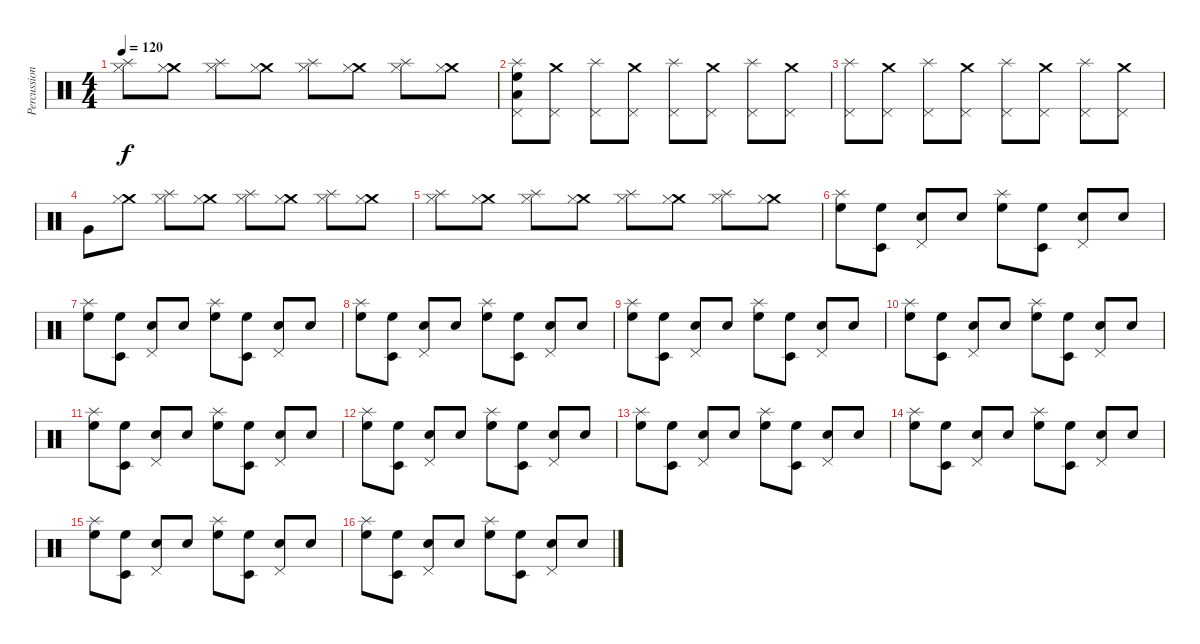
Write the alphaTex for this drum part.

\track ("Percussion" "Percussion") {instrument percussion}
\staff {score}
\articulation defaults
\ts (4 4)
\tempo 120
\clef neutral
\ks c
("Splash (hit)" "Hi-Hat (closed)").8{dy f} ("Crash medium (hit)" "Hi-Hat (closed)").8 ("Splash (hit)" "Hi-Hat (closed)").8 ("Crash medium (hit)" "Hi-Hat (closed)").8 ("Splash (hit)" "Hi-Hat (closed)").8 ("Crash medium (hit)" "Hi-Hat (closed)").8 ("Splash (hit)" "Hi-Hat (closed)").8 ("Crash medium (hit)" "Hi-Hat (closed)").8 |
("Splash (hit)" "Pedal Hi-Hat (hit)" "High Floor Tom (hit)" "Low Tom (hit)").8 ("Crash medium (hit)" "Pedal Hi-Hat (hit)").8 ("Splash (hit)" "Pedal Hi-Hat (hit)").8 ("Crash medium (hit)" "Pedal Hi-Hat (hit)").8 ("Splash (hit)" "Pedal Hi-Hat (hit)").8 ("Crash medium (hit)" "Pedal Hi-Hat (hit)").8 ("Splash (hit)" "Pedal Hi-Hat (hit)").8 ("Crash medium (hit)" "Pedal Hi-Hat (hit)").8 |
("Splash (hit)" "Pedal Hi-Hat (hit)").8 ("Crash medium (hit)" "Pedal Hi-Hat (hit)").8 ("Splash (hit)" "Pedal Hi-Hat (hit)").8 ("Crash medium (hit)" "Pedal Hi-Hat (hit)").8 ("Splash (hit)" "Pedal Hi-Hat (hit)").8 ("Crash medium (hit)" "Pedal Hi-Hat (hit)").8 ("Splash (hit)" "Pedal Hi-Hat (hit)").8 ("Crash medium (hit)" "Pedal Hi-Hat (hit)").8 |
"Very Low Tom (hit)".8 ("Crash medium (hit)" "Hi-Hat (closed)").8 ("Splash (hit)" "Hi-Hat (closed)").8 ("Crash medium (hit)" "Hi-Hat (closed)").8 ("Splash (hit)" "Hi-Hat (closed)").8 ("Crash medium (hit)" "Hi-Hat (closed)").8 ("Splash (hit)" "Hi-Hat (closed)").8 ("Crash medium (hit)" "Hi-Hat (closed)").8 |
("Splash (hit)" "Hi-Hat (closed)").8 ("Crash medium (hit)" "Hi-Hat (closed)").8 ("Splash (hit)" "Hi-Hat (closed)").8 ("Crash medium (hit)" "Hi-Hat (closed)").8 ("Splash (hit)" "Hi-Hat (closed)").8 ("Crash medium (hit)" "Hi-Hat (closed)").8 ("Splash (hit)" "Hi-Hat (closed)").8 ("Crash medium (hit)" "Hi-Hat (closed)").8 |
("Splash (hit)" "High Floor Tom (hit)").8 ("Timbale low (hit)" "High Floor Tom (hit)").8 ("Pedal Hi-Hat (hit)" "Electric Snare (hit)").8 "Electric Snare (hit)".8 ("Splash (hit)" "High Floor Tom (hit)").8 ("Timbale low (hit)" "High Floor Tom (hit)").8 ("Pedal Hi-Hat (hit)" "Electric Snare (hit)").8 "Electric Snare (hit)".8 |
("Splash (hit)" "High Floor Tom (hit)").8 ("Timbale low (hit)" "High Floor Tom (hit)").8 ("Pedal Hi-Hat (hit)" "Electric Snare (hit)").8 "Electric Snare (hit)".8 ("Splash (hit)" "High Floor Tom (hit)").8 ("Timbale low (hit)" "High Floor Tom (hit)").8 ("Pedal Hi-Hat (hit)" "Electric Snare (hit)").8 "Electric Snare (hit)".8 |
("Splash (hit)" "High Floor Tom (hit)").8 ("Timbale low (hit)" "High Floor Tom (hit)").8 ("Pedal Hi-Hat (hit)" "Electric Snare (hit)").8 "Electric Snare (hit)".8 ("Splash (hit)" "High Floor Tom (hit)").8 ("Timbale low (hit)" "High Floor Tom (hit)").8 ("Pedal Hi-Hat (hit)" "Electric Snare (hit)").8 "Electric Snare (hit)".8 |
("Splash (hit)" "High Floor Tom (hit)").8 ("Timbale low (hit)" "High Floor Tom (hit)").8 ("Pedal Hi-Hat (hit)" "Electric Snare (hit)").8 "Electric Snare (hit)".8 ("Splash (hit)" "High Floor Tom (hit)").8 ("Timbale low (hit)" "High Floor Tom (hit)").8 ("Pedal Hi-Hat (hit)" "Electric Snare (hit)").8 "Electric Snare (hit)".8 |
("Splash (hit)" "High Floor Tom (hit)").8 ("Timbale low (hit)" "High Floor Tom (hit)").8 ("Pedal Hi-Hat (hit)" "Electric Snare (hit)").8 "Electric Snare (hit)".8 ("Splash (hit)" "High Floor Tom (hit)").8 ("Timbale low (hit)" "High Floor Tom (hit)").8 ("Pedal Hi-Hat (hit)" "Electric Snare (hit)").8 "Electric Snare (hit)".8 |
("Splash (hit)" "High Floor Tom (hit)").8 ("Timbale low (hit)" "High Floor Tom (hit)").8 ("Pedal Hi-Hat (hit)" "Electric Snare (hit)").8 "Electric Snare (hit)".8 ("Splash (hit)" "High Floor Tom (hit)").8 ("Timbale low (hit)" "High Floor Tom (hit)").8 ("Pedal Hi-Hat (hit)" "Electric Snare (hit)").8 "Electric Snare (hit)".8 |
("Splash (hit)" "High Floor Tom (hit)").8 ("Timbale low (hit)" "High Floor Tom (hit)").8 ("Pedal Hi-Hat (hit)" "Electric Snare (hit)").8 "Electric Snare (hit)".8 ("Splash (hit)" "High Floor Tom (hit)").8 ("Timbale low (hit)" "High Floor Tom (hit)").8 ("Pedal Hi-Hat (hit)" "Electric Snare (hit)").8 "Electric Snare (hit)".8 |
("Splash (hit)" "High Floor Tom (hit)").8 ("Timbale low (hit)" "High Floor Tom (hit)").8 ("Pedal Hi-Hat (hit)" "Electric Snare (hit)").8 "Electric Snare (hit)".8 ("Splash (hit)" "High Floor Tom (hit)").8 ("Timbale low (hit)" "High Floor Tom (hit)").8 ("Pedal Hi-Hat (hit)" "Electric Snare (hit)").8 "Electric Snare (hit)".8 |
("Splash (hit)" "High Floor Tom (hit)").8 ("Timbale low (hit)" "High Floor Tom (hit)").8 ("Pedal Hi-Hat (hit)" "Electric Snare (hit)").8 "Electric Snare (hit)".8 ("Splash (hit)" "High Floor Tom (hit)").8 ("Timbale low (hit)" "High Floor Tom (hit)").8 ("Pedal Hi-Hat (hit)" "Electric Snare (hit)").8 "Electric Snare (hit)".8 |
("Splash (hit)" "High Floor Tom (hit)").8 ("Timbale low (hit)" "High Floor Tom (hit)").8 ("Pedal Hi-Hat (hit)" "Electric Snare (hit)").8 "Electric Snare (hit)".8 ("Splash (hit)" "High Floor Tom (hit)").8 ("Timbale low (hit)" "High Floor Tom (hit)").8 ("Pedal Hi-Hat (hit)" "Electric Snare (hit)").8 "Electric Snare (hit)".8 |
("Splash (hit)" "High Floor Tom (hit)").8 ("Timbale low (hit)" "High Floor Tom (hit)").8 ("Pedal Hi-Hat (hit)" "Electric Snare (hit)").8 "Electric Snare (hit)".8 ("Splash (hit)" "High Floor Tom (hit)").8 ("Timbale low (hit)" "High Floor Tom (hit)").8 ("Pedal Hi-Hat (hit)" "Electric Snare (hit)").8 "Electric Snare (hit)".8
